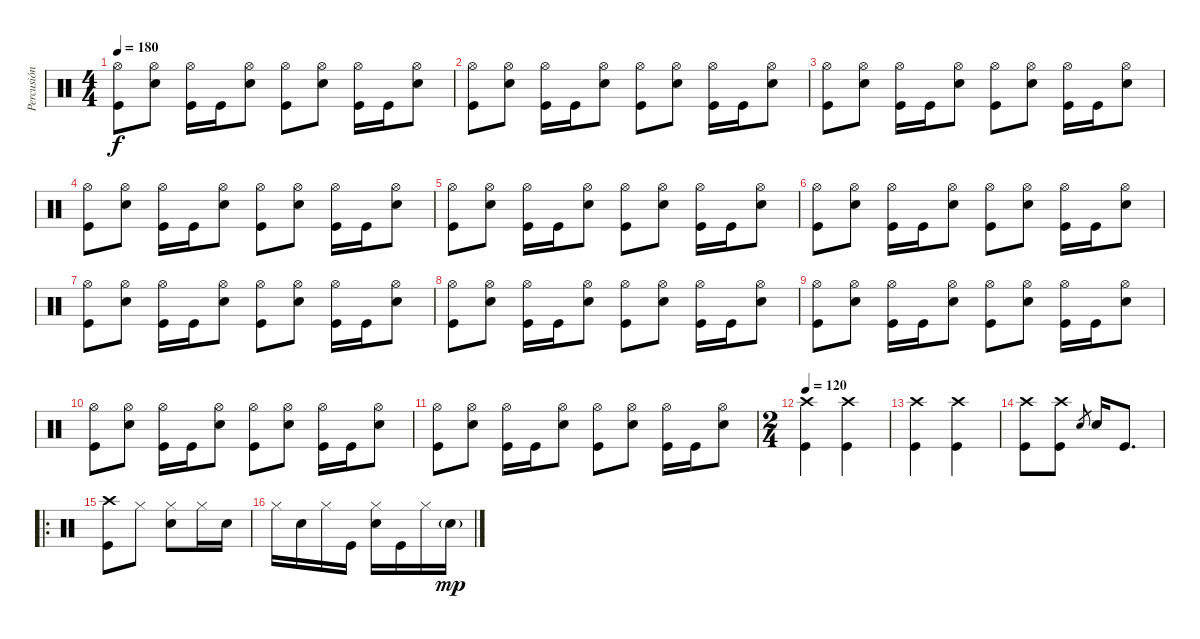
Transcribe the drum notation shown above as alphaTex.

\track ("Percusión" "Percusión") {instrument percussion}
\staff {score}
\articulation defaults
\ts (4 4)
\tempo 180
\clef neutral
\ks c
("Hi-Hat (open)" "Kick (hit)").8{dy f} ("Hi-Hat (open)" "Snare (hit) 2").8 ("Hi-Hat (open)" "Kick (hit)").16 "Kick (hit)".16 ("Hi-Hat (open)" "Snare (hit) 2").8 ("Hi-Hat (open)" "Kick (hit)").8 ("Hi-Hat (open)" "Snare (hit) 2").8 ("Hi-Hat (open)" "Kick (hit)").16 "Kick (hit)".16 ("Hi-Hat (open)" "Snare (hit) 2").8 |
("Hi-Hat (open)" "Kick (hit)").8 ("Hi-Hat (open)" "Snare (hit) 2").8 ("Hi-Hat (open)" "Kick (hit)").16 "Kick (hit)".16 ("Hi-Hat (open)" "Snare (hit) 2").8 ("Hi-Hat (open)" "Kick (hit)").8 ("Hi-Hat (open)" "Snare (hit) 2").8 ("Hi-Hat (open)" "Kick (hit)").16 "Kick (hit)".16 ("Hi-Hat (open)" "Snare (hit) 2").8 |
("Hi-Hat (open)" "Kick (hit)").8 ("Hi-Hat (open)" "Snare (hit) 2").8 ("Hi-Hat (open)" "Kick (hit)").16 "Kick (hit)".16 ("Hi-Hat (open)" "Snare (hit) 2").8 ("Hi-Hat (open)" "Kick (hit)").8 ("Hi-Hat (open)" "Snare (hit) 2").8 ("Hi-Hat (open)" "Kick (hit)").16 "Kick (hit)".16 ("Hi-Hat (open)" "Snare (hit) 2").8 |
("Hi-Hat (open)" "Kick (hit)").8 ("Hi-Hat (open)" "Snare (hit) 2").8 ("Hi-Hat (open)" "Kick (hit)").16 "Kick (hit)".16 ("Hi-Hat (open)" "Snare (hit) 2").8 ("Hi-Hat (open)" "Kick (hit)").8 ("Hi-Hat (open)" "Snare (hit) 2").8 ("Hi-Hat (open)" "Kick (hit)").16 "Kick (hit)".16 ("Hi-Hat (open)" "Snare (hit) 2").8 |
("Hi-Hat (open)" "Kick (hit)").8 ("Hi-Hat (open)" "Snare (hit) 2").8 ("Hi-Hat (open)" "Kick (hit)").16 "Kick (hit)".16 ("Hi-Hat (open)" "Snare (hit) 2").8 ("Hi-Hat (open)" "Kick (hit)").8 ("Hi-Hat (open)" "Snare (hit) 2").8 ("Hi-Hat (open)" "Kick (hit)").16 "Kick (hit)".16 ("Hi-Hat (open)" "Snare (hit) 2").8 |
("Hi-Hat (open)" "Kick (hit)").8 ("Hi-Hat (open)" "Snare (hit) 2").8 ("Hi-Hat (open)" "Kick (hit)").16 "Kick (hit)".16 ("Hi-Hat (open)" "Snare (hit) 2").8 ("Hi-Hat (open)" "Kick (hit)").8 ("Hi-Hat (open)" "Snare (hit) 2").8 ("Hi-Hat (open)" "Kick (hit)").16 "Kick (hit)".16 ("Hi-Hat (open)" "Snare (hit) 2").8 |
("Hi-Hat (open)" "Kick (hit)").8 ("Hi-Hat (open)" "Snare (hit) 2").8 ("Hi-Hat (open)" "Kick (hit)").16 "Kick (hit)".16 ("Hi-Hat (open)" "Snare (hit) 2").8 ("Hi-Hat (open)" "Kick (hit)").8 ("Hi-Hat (open)" "Snare (hit) 2").8 ("Hi-Hat (open)" "Kick (hit)").16 "Kick (hit)".16 ("Hi-Hat (open)" "Snare (hit) 2").8 |
("Hi-Hat (open)" "Kick (hit)").8 ("Hi-Hat (open)" "Snare (hit) 2").8 ("Hi-Hat (open)" "Kick (hit)").16 "Kick (hit)".16 ("Hi-Hat (open)" "Snare (hit) 2").8 ("Hi-Hat (open)" "Kick (hit)").8 ("Hi-Hat (open)" "Snare (hit) 2").8 ("Hi-Hat (open)" "Kick (hit)").16 "Kick (hit)".16 ("Hi-Hat (open)" "Snare (hit) 2").8 |
("Hi-Hat (open)" "Kick (hit)").8 ("Hi-Hat (open)" "Snare (hit) 2").8 ("Hi-Hat (open)" "Kick (hit)").16 "Kick (hit)".16 ("Hi-Hat (open)" "Snare (hit) 2").8 ("Hi-Hat (open)" "Kick (hit)").8 ("Hi-Hat (open)" "Snare (hit) 2").8 ("Hi-Hat (open)" "Kick (hit)").16 "Kick (hit)".16 ("Hi-Hat (open)" "Snare (hit) 2").8 |
("Hi-Hat (open)" "Kick (hit)").8 ("Hi-Hat (open)" "Snare (hit) 2").8 ("Hi-Hat (open)" "Kick (hit)").16 "Kick (hit)".16 ("Hi-Hat (open)" "Snare (hit) 2").8 ("Hi-Hat (open)" "Kick (hit)").8 ("Hi-Hat (open)" "Snare (hit) 2").8 ("Hi-Hat (open)" "Kick (hit)").16 "Kick (hit)".16 ("Hi-Hat (open)" "Snare (hit) 2").8 |
("Hi-Hat (open)" "Kick (hit)").8 ("Hi-Hat (open)" "Snare (hit) 2").8 ("Hi-Hat (open)" "Kick (hit)").16 "Kick (hit)".16 ("Hi-Hat (open)" "Snare (hit) 2").8 ("Hi-Hat (open)" "Kick (hit)").8 ("Hi-Hat (open)" "Snare (hit) 2").8 ("Hi-Hat (open)" "Kick (hit)").16 "Kick (hit)".16 ("Hi-Hat (open)" "Snare (hit) 2").8 |
\ts (2 4)
\tempo 120
("Crash high (hit)" "Kick (hit)").4 ("Crash high (hit)" "Kick (hit)").4 |
("Crash high (hit)" "Kick (hit)").4 ("Crash high (hit)" "Kick (hit)").4 |
("Crash high (hit)" "Kick (hit)").8 ("Crash high (hit)" "Kick (hit)").8 "Snare (hit) 2".8{gr} "Snare (hit) 2".16 "Kick (hit)".8{d} |
\ro
("Crash high (hit)" "Kick (hit)").8 "Hi-Hat (closed)".8 ("Hi-Hat (closed)" "Snare (hit) 2").8 "Hi-Hat (closed)".16 "Snare (hit) 2".16 |
"Hi-Hat (closed)".16 "Snare (hit) 2".16 "Hi-Hat (closed)".16 "Kick (hit)".16 ("Hi-Hat (closed)" "Snare (hit) 2").16 "Kick (hit)".16 "Hi-Hat (closed)".16 "Snare (hit) 2"{g}.16{dy mp}
